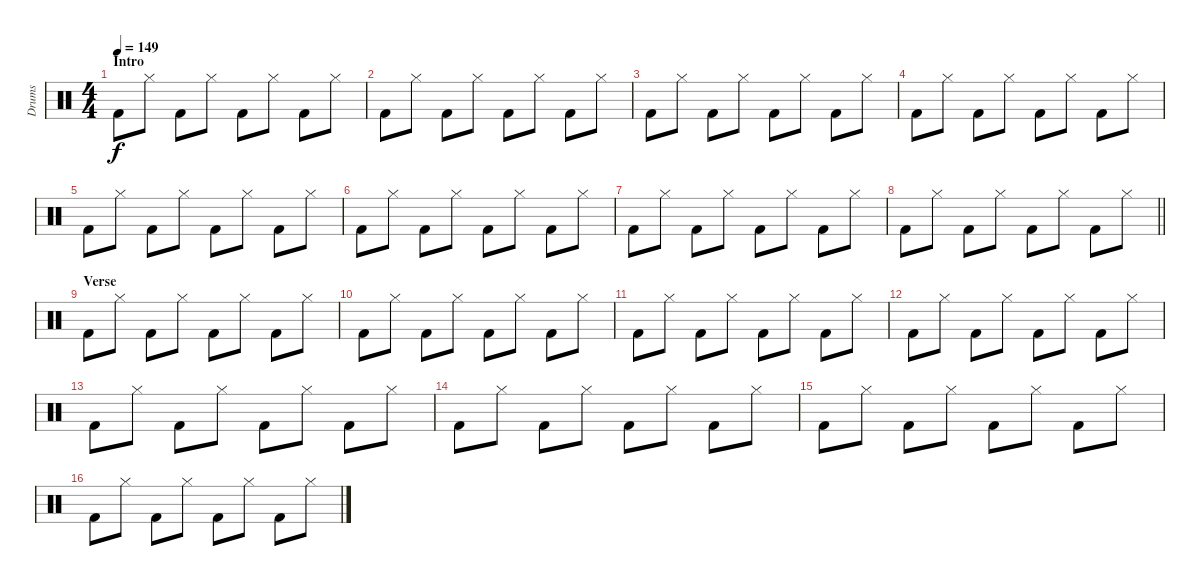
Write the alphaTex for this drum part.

\track ("Drums" "Drums") {instrument percussion}
\staff {score}
\articulation defaults
\ts (4 4)
\section ("" "Intro")
\tempo 149
\clef neutral
\ks c "Kick (hit) 2".8{dy f} "Hi-Hat (closed)".8 "Kick (hit) 2".8 "Hi-Hat (closed)".8 "Kick (hit) 2".8 "Hi-Hat (closed)".8 "Kick (hit) 2".8 "Hi-Hat (closed)".8
|
"Kick (hit) 2".8 "Hi-Hat (closed)".8 "Kick (hit) 2".8 "Hi-Hat (closed)".8 "Kick (hit) 2".8 "Hi-Hat (closed)".8 "Kick (hit) 2".8 "Hi-Hat (closed)".8 |
"Kick (hit) 2".8 "Hi-Hat (closed)".8 "Kick (hit) 2".8 "Hi-Hat (closed)".8 "Kick (hit) 2".8 "Hi-Hat (closed)".8 "Kick (hit) 2".8 "Hi-Hat (closed)".8 |
"Kick (hit) 2".8 "Hi-Hat (closed)".8 "Kick (hit) 2".8 "Hi-Hat (closed)".8 "Kick (hit) 2".8 "Hi-Hat (closed)".8 "Kick (hit) 2".8 "Hi-Hat (closed)".8 |
"Kick (hit) 2".8 "Hi-Hat (closed)".8 "Kick (hit) 2".8 "Hi-Hat (closed)".8 "Kick (hit) 2".8 "Hi-Hat (closed)".8 "Kick (hit) 2".8 "Hi-Hat (closed)".8 |
"Kick (hit) 2".8 "Hi-Hat (closed)".8 "Kick (hit) 2".8 "Hi-Hat (closed)".8 "Kick (hit) 2".8 "Hi-Hat (closed)".8 "Kick (hit) 2".8 "Hi-Hat (closed)".8 |
"Kick (hit) 2".8 "Hi-Hat (closed)".8 "Kick (hit) 2".8 "Hi-Hat (closed)".8 "Kick (hit) 2".8 "Hi-Hat (closed)".8 "Kick (hit) 2".8 "Hi-Hat (closed)".8 |
\barLineRight lightlight "Kick (hit) 2".8 "Hi-Hat (closed)".8 "Kick (hit) 2".8 "Hi-Hat (closed)".8 "Kick (hit) 2".8 "Hi-Hat (closed)".8 "Kick (hit) 2".8 "Hi-Hat (closed)".8
|
\section ("" "Verse")
"Kick (hit) 2".8 "Hi-Hat (closed)".8 "Kick (hit) 2".8 "Hi-Hat (closed)".8 "Kick (hit) 2".8 "Hi-Hat (closed)".8 "Kick (hit) 2".8 "Hi-Hat (closed)".8 |
"Kick (hit) 2".8 "Hi-Hat (closed)".8 "Kick (hit) 2".8 "Hi-Hat (closed)".8 "Kick (hit) 2".8 "Hi-Hat (closed)".8 "Kick (hit) 2".8 "Hi-Hat (closed)".8 |
"Kick (hit) 2".8 "Hi-Hat (closed)".8 "Kick (hit) 2".8 "Hi-Hat (closed)".8 "Kick (hit) 2".8 "Hi-Hat (closed)".8 "Kick (hit) 2".8 "Hi-Hat (closed)".8 |
"Kick (hit) 2".8 "Hi-Hat (closed)".8 "Kick (hit) 2".8 "Hi-Hat (closed)".8 "Kick (hit) 2".8 "Hi-Hat (closed)".8 "Kick (hit) 2".8 "Hi-Hat (closed)".8 |
"Kick (hit) 2".8 "Hi-Hat (closed)".8 "Kick (hit) 2".8 "Hi-Hat (closed)".8 "Kick (hit) 2".8 "Hi-Hat (closed)".8 "Kick (hit) 2".8 "Hi-Hat (closed)".8 |
"Kick (hit) 2".8 "Hi-Hat (closed)".8 "Kick (hit) 2".8 "Hi-Hat (closed)".8 "Kick (hit) 2".8 "Hi-Hat (closed)".8 "Kick (hit) 2".8 "Hi-Hat (closed)".8 |
"Kick (hit) 2".8 "Hi-Hat (closed)".8 "Kick (hit) 2".8 "Hi-Hat (closed)".8 "Kick (hit) 2".8 "Hi-Hat (closed)".8 "Kick (hit) 2".8 "Hi-Hat (closed)".8 |
"Kick (hit) 2".8 "Hi-Hat (closed)".8 "Kick (hit) 2".8 "Hi-Hat (closed)".8 "Kick (hit) 2".8 "Hi-Hat (closed)".8 "Kick (hit) 2".8 "Hi-Hat (closed)".8
